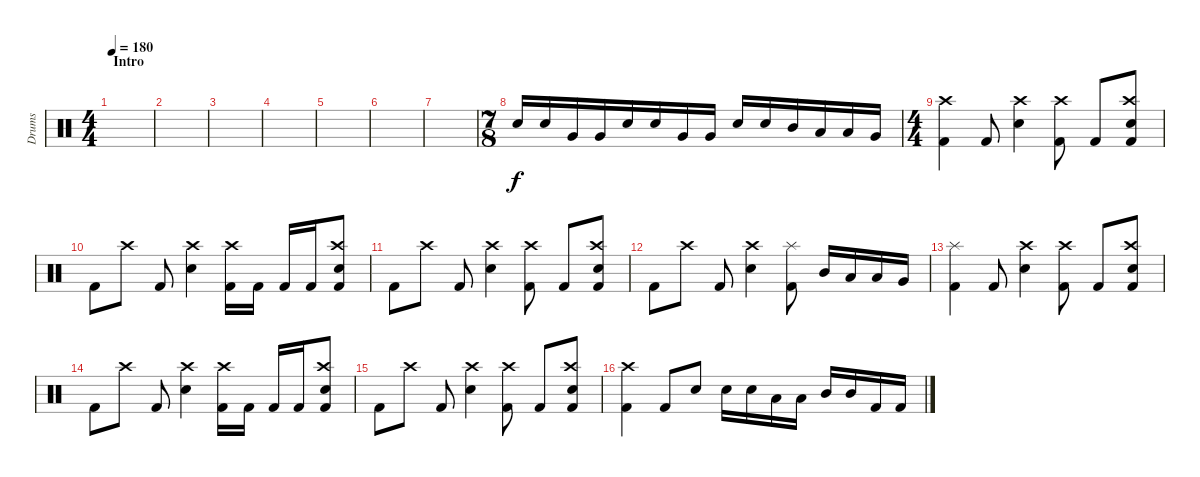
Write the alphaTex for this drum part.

\track ("Drums" "Drums") {instrument percussion}
\staff {score}
\articulation defaults
\ts (4 4)
\section ("" "Intro")
\tempo 180
\clef neutral
\ks c
|
|
|
|
|
|
|
\ts (7 8)
"Electric Snare (hit)".16 "Electric Snare (hit)".16 "Very Low Tom (hit)".16 "Very Low Tom (hit)".16 "Electric Snare (hit)".16 "Electric Snare (hit)".16 "Very Low Tom (hit)".16 "Very Low Tom (hit)".16 "Electric Snare (hit)".16 "Electric Snare (hit)".16 "Mid Tom (hit)".16 "Low Tom (hit)".16 "Low Tom (hit)".16 "Very Low Tom (hit)".16 |
\ts (4 4)
("Crash high (hit)" "Kick (hit) 2").4 "Kick (hit) 2".8 ("Crash high (hit)" "Electric Snare (hit)").4 ("Crash high (hit)" "Kick (hit) 2").8 "Kick (hit) 2".8 ("Crash high (hit)" "Electric Snare (hit)" "Kick (hit) 2").8 |
"Kick (hit) 2".8 "Crash high (hit)".8 "Kick (hit) 2".8 ("Crash high (hit)" "Electric Snare (hit)").4 ("Crash high (hit)" "Kick (hit) 2").16 "Kick (hit) 2".16 "Kick (hit) 2".16 "Kick (hit) 2".16 ("Crash high (hit)" "Electric Snare (hit)" "Kick (hit) 2").8 |
"Kick (hit) 2".8 "Crash high (hit)".8 "Kick (hit) 2".8 ("Crash high (hit)" "Electric Snare (hit)").4 ("Crash high (hit)" "Kick (hit) 2").8 "Kick (hit) 2".8 ("Crash high (hit)" "Electric Snare (hit)" "Kick (hit) 2").8 |
"Kick (hit) 2".8 "Crash high (hit)".8 "Kick (hit) 2".8 ("Crash high (hit)" "Electric Snare (hit)").4 ("Splash (hit)" "Kick (hit) 2").8 "Mid Tom (hit)".16 "Low Tom (hit)".16 "Low Tom (hit)".16 "Very Low Tom (hit)".16 |
("Splash (hit)" "Kick (hit) 2").4 "Kick (hit) 2".8 ("Crash high (hit)" "Electric Snare (hit)").4 ("Crash high (hit)" "Kick (hit) 2").8 "Kick (hit) 2".8 ("Crash high (hit)" "Electric Snare (hit)" "Kick (hit) 2").8 |
"Kick (hit) 2".8 "Crash high (hit)".8 "Kick (hit) 2".8 ("Crash high (hit)" "Electric Snare (hit)").4 ("Crash high (hit)" "Kick (hit) 2").16 "Kick (hit) 2".16 "Kick (hit) 2".16 "Kick (hit) 2".16 ("Crash high (hit)" "Electric Snare (hit)" "Kick (hit) 2").8 |
"Kick (hit) 2".8 "Crash high (hit)".8 "Kick (hit) 2".8 ("Crash high (hit)" "Electric Snare (hit)").4 ("Crash high (hit)" "Kick (hit) 2").8 "Kick (hit) 2".8 ("Crash high (hit)" "Electric Snare (hit)" "Kick (hit) 2").8 |
("Crash high (hit)" "Kick (hit) 2").4 "Kick (hit) 2".8 "Electric Snare (hit)".8 "Electric Snare (hit)".16 "Electric Snare (hit)".16 "Low Tom (hit)".16 "Low Tom (hit)".16 "Mid Tom (hit)".16 "Mid Tom (hit)".16 "Kick (hit) 2".16 "Kick (hit) 2".16
